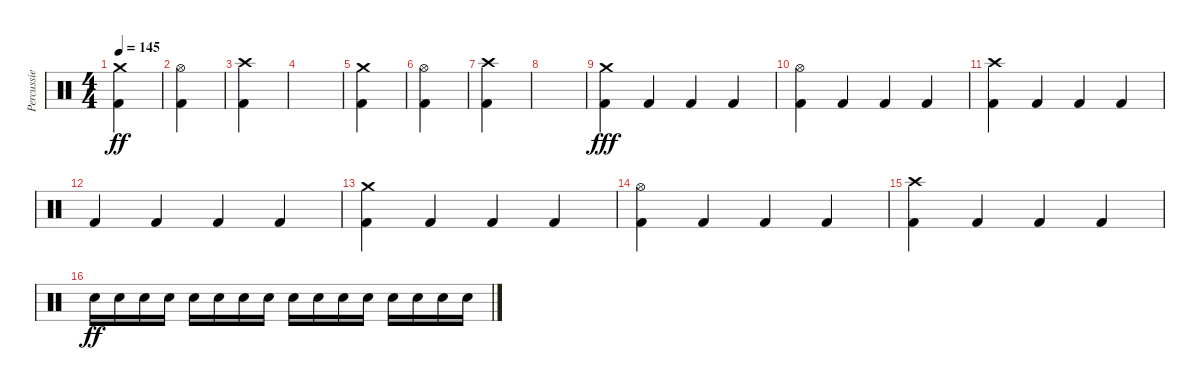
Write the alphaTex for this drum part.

\track ("Percussie" "Percussie") {instrument percussion}
\staff {score}
\articulation defaults
\ts (4 4)
\tempo 145
\clef neutral
\ks c
("Kick (hit) 2" "Crash medium (hit)").4{dy ff} |
("Kick (hit) 2" "Hi-Hat (open)").4 |
("Kick (hit) 2" "Crash high (hit)").4 |
|
("Kick (hit) 2" "Crash medium (hit)").4 |
("Kick (hit) 2" "Hi-Hat (open)").4 |
("Kick (hit) 2" "Crash high (hit)").4 |
|
("Kick (hit) 2" "Crash medium (hit)").4{dy fff} "Kick (hit) 2".4 "Kick (hit) 2".4 "Kick (hit) 2".4 |
("Kick (hit) 2" "Hi-Hat (open)").4 "Kick (hit) 2".4 "Kick (hit) 2".4 "Kick (hit) 2".4 |
("Kick (hit) 2" "Crash high (hit)").4 "Kick (hit) 2".4 "Kick (hit) 2".4 "Kick (hit) 2".4 |
"Kick (hit) 2".4 "Kick (hit) 2".4 "Kick (hit) 2".4 "Kick (hit) 2".4 |
("Kick (hit) 2" "Crash medium (hit)").4 "Kick (hit) 2".4 "Kick (hit) 2".4 "Kick (hit) 2".4 |
("Kick (hit) 2" "Hi-Hat (open)").4 "Kick (hit) 2".4 "Kick (hit) 2".4 "Kick (hit) 2".4 |
("Kick (hit) 2" "Crash high (hit)").4 "Kick (hit) 2".4 "Kick (hit) 2".4 "Kick (hit) 2".4 |
"Electric Snare (hit)".16{dy ff} "Electric Snare (hit)".16 "Electric Snare (hit)".16 "Electric Snare (hit)".16 "Electric Snare (hit)".16 "Electric Snare (hit)".16 "Electric Snare (hit)".16 "Electric Snare (hit)".16 "Electric Snare (hit)".16 "Electric Snare (hit)".16 "Electric Snare (hit)".16 "Electric Snare (hit)".16 "Electric Snare (hit)".16 "Electric Snare (hit)".16 "Electric Snare (hit)".16 "Electric Snare (hit)".16
